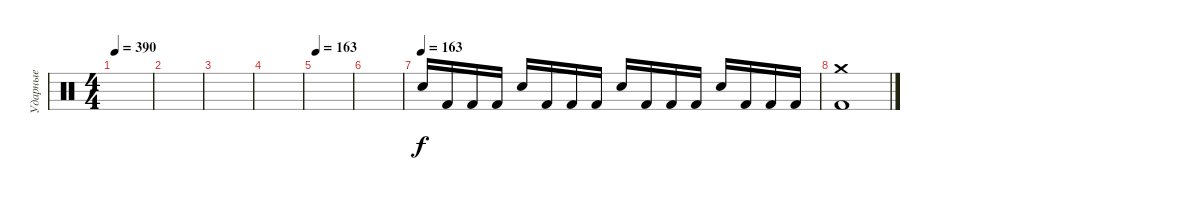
\track ("Ударные" "Ударные") {instrument percussion}
\staff {score}
\articulation defaults
\ts (4 4)
\tempo 390
\clef neutral
\ks c
|
|
|
|
\tempo 163
|
|
\tempo (163)
"Electric Snare (hit)".16 "Kick (hit) 2".16 "Kick (hit) 2".16 "Kick (hit) 2".16 "Electric Snare (hit)".16 "Kick (hit) 2".16 "Kick (hit) 2".16 "Kick (hit) 2".16 "Electric Snare (hit)".16 "Kick (hit) 2".16 "Kick (hit) 2".16 "Kick (hit) 2".16 "Electric Snare (hit)".16 "Kick (hit) 2".16 "Kick (hit) 2".16 "Kick (hit) 2".16 |
("Kick (hit) 2" "Crash medium (hit)").1
